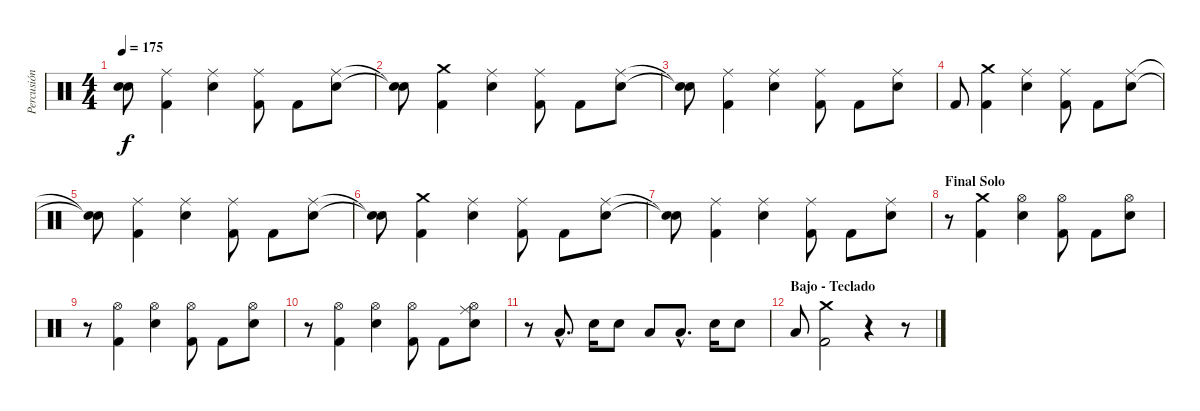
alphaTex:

\track ("Percusión" "Percusión") {instrument percussion}
\staff {score}
\articulation defaults
\ts (4 4)
\tempo 175
\clef neutral
\ks c
("Snare (hit)"{t} "Snare (hit) 2"{t}).8{dy f} ("Ride (middle)" "Kick (hit) 2").4 ("Snare (hit) 2" "Ride (middle)").4 ("Ride (middle)" "Kick (hit) 2").8 "Kick (hit) 2".8 ("Ride (middle)" "Snare (hit) 2").8 |
("Snare (hit)"{t} "Snare (hit) 2"{t}).8 ("Crash medium (hit)" "Kick (hit) 2").4 ("Snare (hit) 2" "Ride (middle)").4 ("Ride (middle)" "Kick (hit) 2").8 "Kick (hit) 2".8 ("Ride (middle)" "Snare (hit) 2").8 |
("Snare (hit)"{t} "Snare (hit) 2"{t}).8 ("Ride (middle)" "Kick (hit) 2").4 ("Snare (hit) 2" "Ride (middle)").4 ("Ride (middle)" "Kick (hit) 2").8 "Kick (hit) 2".8 ("Ride (middle)" "Snare (hit) 2").8 |
"Kick (hit) 2".8 ("Crash medium (hit)" "Kick (hit) 2").4 ("Snare (hit) 2" "Ride (middle)").4 ("Ride (middle)" "Kick (hit) 2").8 "Kick (hit) 2".8 ("Ride (middle)" "Snare (hit) 2").8 |
("Snare (hit)"{t} "Snare (hit) 2"{t}).8 ("Ride (middle)" "Kick (hit) 2").4 ("Snare (hit) 2" "Ride (middle)").4 ("Ride (middle)" "Kick (hit) 2").8 "Kick (hit) 2".8 ("Ride (middle)" "Snare (hit) 2").8 |
("Snare (hit)"{t} "Snare (hit) 2"{t}).8 ("Crash medium (hit)" "Kick (hit) 2").4 ("Snare (hit) 2" "Ride (middle)").4 ("Ride (middle)" "Kick (hit) 2").8 "Kick (hit) 2".8 ("Ride (middle)" "Snare (hit) 2").8 |
("Snare (hit)"{t} "Snare (hit) 2"{t}).8 ("Ride (middle)" "Kick (hit) 2").4 ("Snare (hit) 2" "Ride (middle)").4 ("Ride (middle)" "Kick (hit) 2").8 "Kick (hit) 2".8 ("Ride (middle)" "Snare (hit) 2").8 |
\section ("" "Final Solo")
r.8 ("Kick (hit) 2" "Crash medium (hit)").4 ("Hi-Hat (open)" "Snare (hit) 2").4 ("Kick (hit) 2" "Hi-Hat (open)").8 "Kick (hit) 2".8 ("Hi-Hat (open)" "Snare (hit) 2").8 |
r.8 ("Kick (hit) 2" "Hi-Hat (open)").4 ("Hi-Hat (open)" "Snare (hit) 2").4 ("Kick (hit) 2" "Hi-Hat (open)").8 "Kick (hit) 2".8 ("Hi-Hat (open)" "Snare (hit) 2").8 |
r.8 ("Kick (hit) 2" "Hi-Hat (open)").4 ("Hi-Hat (open)" "Snare (hit) 2").4 ("Kick (hit) 2" "Hi-Hat (open)").8 "Kick (hit) 2".8 ("Ride (middle)" "Hi-Hat (open)" "Snare (hit) 2").8 |
r.8 "Low Tom (hit)"{hac}.8{d} "Snare (hit) 2".16 "Snare (hit) 2".8 "Low Tom (hit)".8 "Low Tom (hit)"{hac}.8{d} "Snare (hit) 2".16 "Snare (hit) 2".8 |
\section ("" "Bajo - Teclado")
"Low Tom (hit)".8 ("Crash medium (hit)" "Kick (hit) 2").2 r.4 r.8
